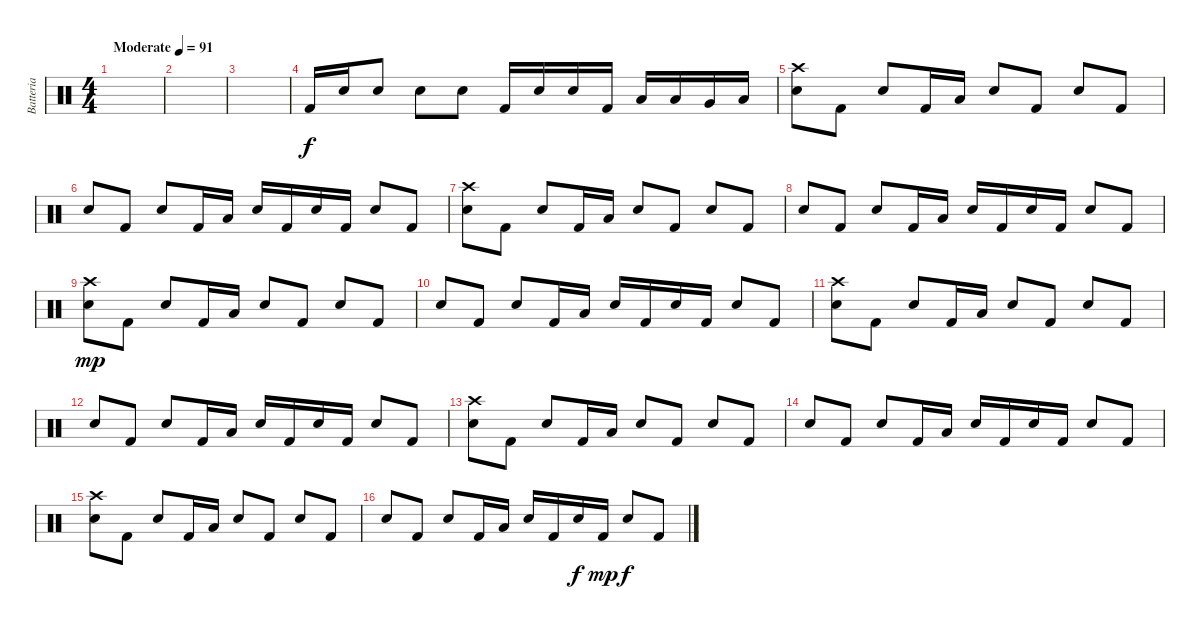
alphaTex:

\track ("Batteria" "Batteria") {instrument percussion}
\staff {score}
\articulation defaults
\ts (4 4)
\tempo (91 "Moderate")
\clef neutral
\ks c
|
|
|
"Kick (hit) 2".16 "Electric Snare (hit)".16 "Electric Snare (hit)".8 "Electric Snare (hit)".8 "Electric Snare (hit)".8 "Kick (hit) 2".16 "Electric Snare (hit)".16 "Electric Snare (hit)".16 "Kick (hit) 2".16 "Low Tom (hit)".16 "Low Tom (hit)".16 "Very Low Tom (hit)".16 "Low Floor Tom (hit)".16 |
("Crash high (hit)" "Electric Snare (hit)").8 "Kick (hit) 2".8 "Electric Snare (hit)".8 "Kick (hit) 2".16 "Low Floor Tom (hit)".16 "Electric Snare (hit)".8 "Kick (hit) 2".8 "Electric Snare (hit)".8 "Kick (hit) 2".8 |
"Electric Snare (hit)".8 "Kick (hit) 2".8 "Electric Snare (hit)".8 "Kick (hit) 2".16 "Low Floor Tom (hit)".16 "Electric Snare (hit)".16 "Kick (hit) 2".16 "Electric Snare (hit)".16 "Kick (hit) 2".16 "Electric Snare (hit)".8 "Kick (hit) 2".8 |
("Crash high (hit)" "Electric Snare (hit)").8 "Kick (hit) 2".8 "Electric Snare (hit)".8 "Kick (hit) 2".16 "Low Floor Tom (hit)".16 "Electric Snare (hit)".8 "Kick (hit) 2".8 "Electric Snare (hit)".8 "Kick (hit) 2".8 |
"Electric Snare (hit)".8 "Kick (hit) 2".8 "Electric Snare (hit)".8 "Kick (hit) 2".16 "Low Floor Tom (hit)".16 "Electric Snare (hit)".16 "Kick (hit) 2".16 "Electric Snare (hit)".16 "Kick (hit) 2".16 "Electric Snare (hit)".8 "Kick (hit) 2".8 |
("Crash high (hit)" "Electric Snare (hit)").8{dy mp} "Kick (hit) 2".8 "Electric Snare (hit)".8 "Kick (hit) 2".16 "Low Floor Tom (hit)".16 "Electric Snare (hit)".8 "Kick (hit) 2".8 "Electric Snare (hit)".8 "Kick (hit) 2".8 |
"Electric Snare (hit)".8 "Kick (hit) 2".8 "Electric Snare (hit)".8 "Kick (hit) 2".16 "Low Floor Tom (hit)".16 "Electric Snare (hit)".16 "Kick (hit) 2".16 "Electric Snare (hit)".16 "Kick (hit) 2".16 "Electric Snare (hit)".8 "Kick (hit) 2".8 |
("Crash high (hit)" "Electric Snare (hit)").8 "Kick (hit) 2".8 "Electric Snare (hit)".8 "Kick (hit) 2".16 "Low Floor Tom (hit)".16 "Electric Snare (hit)".8 "Kick (hit) 2".8 "Electric Snare (hit)".8 "Kick (hit) 2".8 |
"Electric Snare (hit)".8 "Kick (hit) 2".8 "Electric Snare (hit)".8 "Kick (hit) 2".16 "Low Floor Tom (hit)".16 "Electric Snare (hit)".16 "Kick (hit) 2".16 "Electric Snare (hit)".16 "Kick (hit) 2".16 "Electric Snare (hit)".8 "Kick (hit) 2".8 |
("Crash high (hit)" "Electric Snare (hit)").8 "Kick (hit) 2".8 "Electric Snare (hit)".8 "Kick (hit) 2".16 "Low Floor Tom (hit)".16 "Electric Snare (hit)".8 "Kick (hit) 2".8 "Electric Snare (hit)".8 "Kick (hit) 2".8 |
"Electric Snare (hit)".8 "Kick (hit) 2".8 "Electric Snare (hit)".8 "Kick (hit) 2".16 "Low Floor Tom (hit)".16 "Electric Snare (hit)".16 "Kick (hit) 2".16 "Electric Snare (hit)".16 "Kick (hit) 2".16 "Electric Snare (hit)".8 "Kick (hit) 2".8 |
("Crash high (hit)" "Electric Snare (hit)").8 "Kick (hit) 2".8 "Electric Snare (hit)".8 "Kick (hit) 2".16 "Low Floor Tom (hit)".16 "Electric Snare (hit)".8 "Kick (hit) 2".8 "Electric Snare (hit)".8 "Kick (hit) 2".8 |
"Electric Snare (hit)".8 "Kick (hit) 2".8 "Electric Snare (hit)".8 "Kick (hit) 2".16 "Low Floor Tom (hit)".16 "Electric Snare (hit)".16 "Kick (hit) 2".16 "Electric Snare (hit)".16{dy f} "Kick (hit) 2".16{dy mp} "Electric Snare (hit)".8{dy f} "Kick (hit) 2".8
